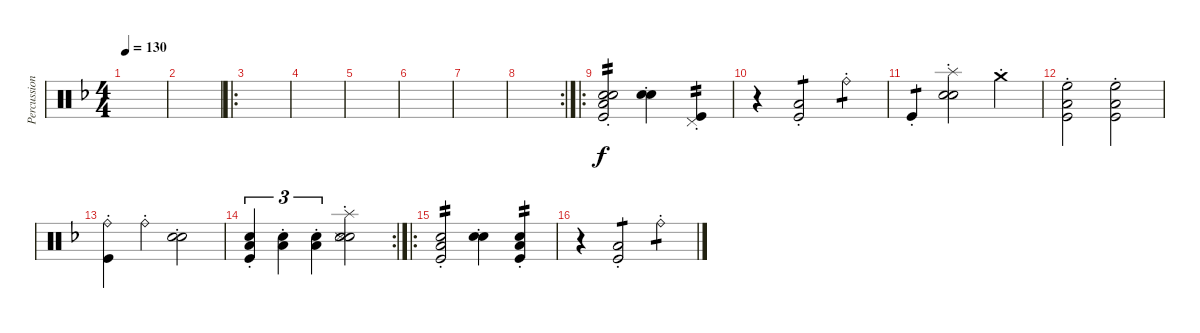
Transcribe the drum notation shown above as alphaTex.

\track ("Percussion" "Percussion") {instrument percussion}
\staff {score}
\articulation defaults
\ts (4 4)
\tempo 130
\clef neutral
\ks dminor
|
|
\ro
|
|
|
|
|
\rc 2
|
\ro
("Snare (hit) 2"{st} "Electric Snare (hit)"{st} "Low Floor Tom (hit)"{st} "Kick (hit)"{st}).2{tp 2 balance 3} ("Electric Snare (hit)"{st} "Snare (hit) 2"{st}).4 ("Pedal Hi-Hat (hit)"{st} "Kick (hit)"{st}).4{tp 2} |
r.4 ("Low Tom (hit)"{st} "Kick (hit)"{st}).2{tp 1} "Ride (bell)"{st}.4{tp 1} |
"Kick (hit)"{st}.4{tp 1} ("Splash (hit)"{st} "Snare (hit) 2"{st} "Electric Snare (hit)"{st}).2 "Crash medium (hit)"{st}.4 |
("High Floor Tom (hit)"{st} "Low Floor Tom (hit)"{st} "Kick (hit)"{st}).2 ("High Floor Tom (hit)"{st} "Low Floor Tom (hit)"{st} "Kick (hit)"{st}).2 |
("Ride (bell)"{st} "Kick (hit)"{st}).4 "Ride (bell)"{st}.4 ("Snare (hit) 2"{st} "Electric Snare (hit)"{st}).2 |
\rc 2
("Snare (hit) 2" "Kick (hit)"{st} "Low Floor Tom (hit)"{st}).4{tu (3 2)} ("Snare (hit) 2" "Low Floor Tom (hit)"{st}).4{tu (3 2)} ("Snare (hit) 2" "Low Floor Tom (hit)"{st}).4{tu (3 2)} ("Splash (hit)"{st} "Snare (hit) 2"{st} "Electric Snare (hit)"{st} "Snare (side stick) 3"{st}).2 |
\ro
("Snare (hit) 2"{st} "Low Floor Tom (hit)"{st} "Kick (hit)"{st}).2{tp 2} ("Electric Snare (hit)"{st} "Snare (hit) 2"{st}).4 ("Low Floor Tom (hit)"{st} "Snare (hit) 2"{st} "Kick (hit)"{st}).4{tp 2} |
r.4 ("Low Tom (hit)"{st} "Kick (hit)"{st}).2{tp 1} "Ride (bell)"{st}.4{tp 1}
